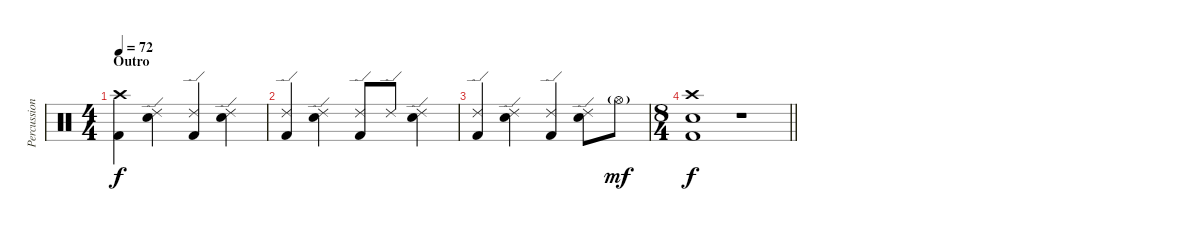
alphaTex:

\track ("Percussion" "Percussion") {instrument percussion}
\staff {score}
\articulation defaults
\ts (4 4)
\section ("" "Outro")
\tempo 72
\clef neutral
\ks c
("Crash high (hit)" "Kick (hit) 2").4{dy f} ("Ride (edge) 2" "Electric Snare (hit)").4 ("Ride (edge) 2" "Kick (hit) 2").4 ("Ride (edge) 2" "Electric Snare (hit)").4 |
("Ride (edge) 2" "Kick (hit) 2").4 ("Ride (edge) 2" "Electric Snare (hit)").4 ("Ride (edge) 2" "Kick (hit) 2").8 "Ride (edge) 2".8 ("Ride (edge) 2" "Electric Snare (hit)").4 |
("Ride (edge) 2" "Kick (hit) 2").4 ("Ride (edge) 2" "Electric Snare (hit)").4 ("Ride (edge) 2" "Kick (hit) 2").4 ("Ride (edge) 2" "Electric Snare (hit)").8 "Hi-Hat (open)"{g}.8{dy mf} |
\ts (8 4)
\barLineRight lightlight
("Crash high (hit)" "Electric Snare (hit)" "Kick (hit) 2").1{dy f} r.1
